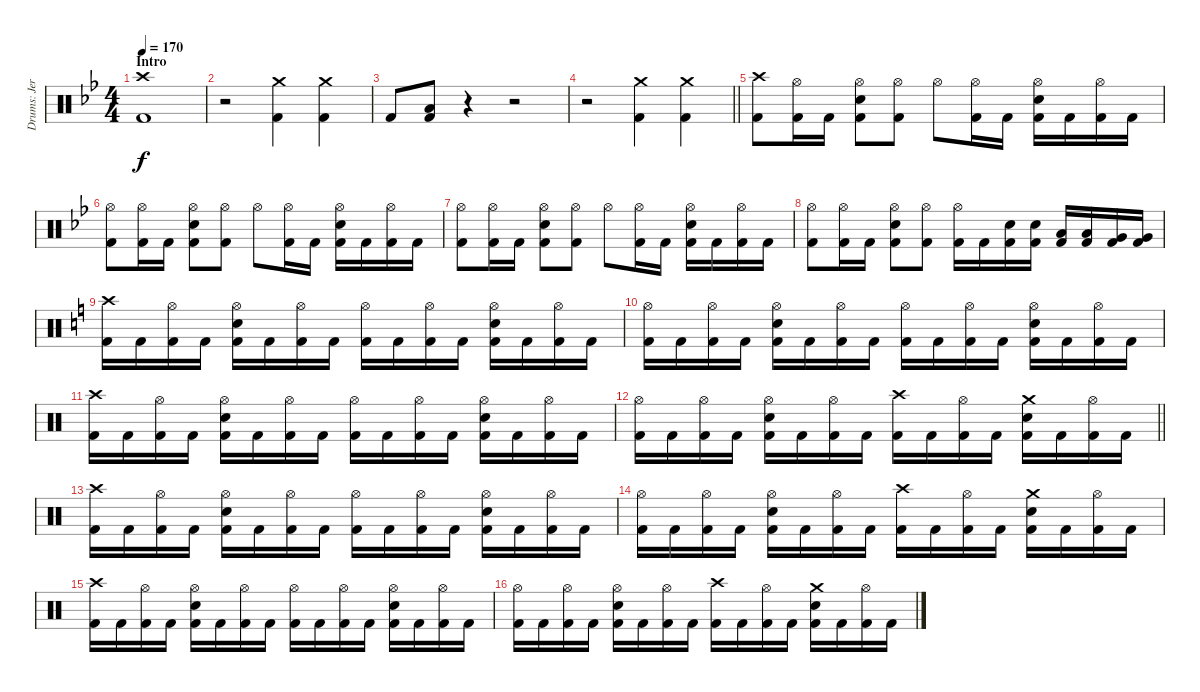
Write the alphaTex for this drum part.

\track ("Drums: Jere Luokkamäki" "Drums: Jer") {instrument percussion}
\staff {score}
\articulation defaults
\ts (4 4)
\section ("" "Intro")
\tempo 170
\clef neutral
\ks gminor
("Crash high (hit)" "Kick (hit) 2").1{dy f} |
r.2 ("Crash medium (hit)" "Kick (hit) 2").4 ("Crash medium (hit)" "Kick (hit) 2").4 |
"Kick (hit) 2".8 ("Low Tom (hit)" "Kick (hit) 2").8 r.4 r.2 |
\barLineRight lightlight
r.2 ("Crash medium (hit)" "Kick (hit) 2").4 ("Crash medium (hit)" "Kick (hit) 2").4 |
("Crash high (hit)" "Kick (hit) 2").8 ("Hi-Hat (open)" "Kick (hit) 2").16 "Kick (hit) 2".16 ("Hi-Hat (open)" "Electric Snare (hit)" "Kick (hit) 2").8 ("Hi-Hat (open)" "Kick (hit) 2").8 "Hi-Hat (open)".8 ("Hi-Hat (open)" "Kick (hit) 2").16 "Kick (hit) 2".16 ("Hi-Hat (open)" "Electric Snare (hit)" "Kick (hit) 2").16 "Kick (hit) 2".16 ("Hi-Hat (open)" "Kick (hit) 2").16 "Kick (hit) 2".16 |
("Hi-Hat (open)" "Kick (hit) 2").8 ("Hi-Hat (open)" "Kick (hit) 2").16 "Kick (hit) 2".16 ("Hi-Hat (open)" "Electric Snare (hit)" "Kick (hit) 2").8 ("Hi-Hat (open)" "Kick (hit) 2").8 "Hi-Hat (open)".8 ("Hi-Hat (open)" "Kick (hit) 2").16 "Kick (hit) 2".16 ("Hi-Hat (open)" "Electric Snare (hit)" "Kick (hit) 2").16 "Kick (hit) 2".16 ("Hi-Hat (open)" "Kick (hit) 2").16 "Kick (hit) 2".16 |
("Hi-Hat (open)" "Kick (hit) 2").8 ("Hi-Hat (open)" "Kick (hit) 2").16 "Kick (hit) 2".16 ("Hi-Hat (open)" "Electric Snare (hit)" "Kick (hit) 2").8 ("Hi-Hat (open)" "Kick (hit) 2").8 "Hi-Hat (open)".8 ("Hi-Hat (open)" "Kick (hit) 2").16 "Kick (hit) 2".16 ("Hi-Hat (open)" "Electric Snare (hit)" "Kick (hit) 2").16 "Kick (hit) 2".16 ("Hi-Hat (open)" "Kick (hit) 2").16 "Kick (hit) 2".16 |
("Hi-Hat (open)" "Kick (hit) 2").8 ("Hi-Hat (open)" "Kick (hit) 2").16 "Kick (hit) 2".16 ("Hi-Hat (open)" "Electric Snare (hit)" "Kick (hit) 2").8 ("Hi-Hat (open)" "Kick (hit) 2").8 ("Hi-Hat (open)" "Kick (hit) 2").16 "Kick (hit) 2".16 ("Electric Snare (hit)" "Kick (hit) 2").16 ("Electric Snare (hit)" "Kick (hit) 2").16 ("Low Tom (hit)" "Kick (hit) 2").16 ("Low Tom (hit)" "Kick (hit) 2").16 ("Very Low Tom (hit)" "Kick (hit) 2").16 ("Very Low Tom (hit)" "Kick (hit) 2").16 |
\ks aminor
("Crash high (hit)" "Kick (hit) 2").16 "Kick (hit) 2".16 ("Hi-Hat (open)" "Kick (hit) 2").16 "Kick (hit) 2".16 ("Hi-Hat (open)" "Electric Snare (hit)" "Kick (hit) 2").16 "Kick (hit) 2".16 ("Hi-Hat (open)" "Kick (hit) 2").16 "Kick (hit) 2".16 ("Hi-Hat (open)" "Kick (hit) 2").16 "Kick (hit) 2".16 ("Hi-Hat (open)" "Kick (hit) 2").16 "Kick (hit) 2".16 ("Hi-Hat (open)" "Electric Snare (hit)" "Kick (hit) 2").16 "Kick (hit) 2".16 ("Hi-Hat (open)" "Kick (hit) 2").16 "Kick (hit) 2".16 |
("Hi-Hat (open)" "Kick (hit) 2").16 "Kick (hit) 2".16 ("Hi-Hat (open)" "Kick (hit) 2").16 "Kick (hit) 2".16 ("Hi-Hat (open)" "Electric Snare (hit)" "Kick (hit) 2").16 "Kick (hit) 2".16 ("Hi-Hat (open)" "Kick (hit) 2").16 "Kick (hit) 2".16 ("Hi-Hat (open)" "Kick (hit) 2").16 "Kick (hit) 2".16 ("Hi-Hat (open)" "Kick (hit) 2").16 "Kick (hit) 2".16 ("Hi-Hat (open)" "Electric Snare (hit)" "Kick (hit) 2").16 "Kick (hit) 2".16 ("Hi-Hat (open)" "Kick (hit) 2").16 "Kick (hit) 2".16 |
("Crash high (hit)" "Kick (hit) 2").16 "Kick (hit) 2".16 ("Hi-Hat (open)" "Kick (hit) 2").16 "Kick (hit) 2".16 ("Hi-Hat (open)" "Electric Snare (hit)" "Kick (hit) 2").16 "Kick (hit) 2".16 ("Hi-Hat (open)" "Kick (hit) 2").16 "Kick (hit) 2".16 ("Hi-Hat (open)" "Kick (hit) 2").16 "Kick (hit) 2".16 ("Hi-Hat (open)" "Kick (hit) 2").16 "Kick (hit) 2".16 ("Hi-Hat (open)" "Electric Snare (hit)" "Kick (hit) 2").16 "Kick (hit) 2".16 ("Hi-Hat (open)" "Kick (hit) 2").16 "Kick (hit) 2".16 |
\barLineRight lightlight
("Hi-Hat (open)" "Kick (hit) 2").16 "Kick (hit) 2".16 ("Hi-Hat (open)" "Kick (hit) 2").16 "Kick (hit) 2".16 ("Hi-Hat (open)" "Electric Snare (hit)" "Kick (hit) 2").16 "Kick (hit) 2".16 ("Hi-Hat (open)" "Kick (hit) 2").16 "Kick (hit) 2".16 ("Crash high (hit)" "Kick (hit) 2").16 "Kick (hit) 2".16 ("Hi-Hat (open)" "Kick (hit) 2").16 "Kick (hit) 2".16 ("Crash medium (hit)" "Electric Snare (hit)" "Kick (hit) 2").16 "Kick (hit) 2".16 ("Hi-Hat (open)" "Kick (hit) 2").16 "Kick (hit) 2".16 |
("Crash high (hit)" "Kick (hit) 2").16 "Kick (hit) 2".16 ("Hi-Hat (open)" "Kick (hit) 2").16 "Kick (hit) 2".16 ("Hi-Hat (open)" "Electric Snare (hit)" "Kick (hit) 2").16 "Kick (hit) 2".16 ("Hi-Hat (open)" "Kick (hit) 2").16 "Kick (hit) 2".16 ("Hi-Hat (open)" "Kick (hit) 2").16 "Kick (hit) 2".16 ("Hi-Hat (open)" "Kick (hit) 2").16 "Kick (hit) 2".16 ("Hi-Hat (open)" "Electric Snare (hit)" "Kick (hit) 2").16 "Kick (hit) 2".16 ("Hi-Hat (open)" "Kick (hit) 2").16 "Kick (hit) 2".16 |
("Hi-Hat (open)" "Kick (hit) 2").16 "Kick (hit) 2".16 ("Hi-Hat (open)" "Kick (hit) 2").16 "Kick (hit) 2".16 ("Hi-Hat (open)" "Electric Snare (hit)" "Kick (hit) 2").16 "Kick (hit) 2".16 ("Hi-Hat (open)" "Kick (hit) 2").16 "Kick (hit) 2".16 ("Crash high (hit)" "Kick (hit) 2").16 "Kick (hit) 2".16 ("Hi-Hat (open)" "Kick (hit) 2").16 "Kick (hit) 2".16 ("Crash medium (hit)" "Electric Snare (hit)" "Kick (hit) 2").16 "Kick (hit) 2".16 ("Hi-Hat (open)" "Kick (hit) 2").16 "Kick (hit) 2".16 |
("Crash high (hit)" "Kick (hit) 2").16 "Kick (hit) 2".16 ("Hi-Hat (open)" "Kick (hit) 2").16 "Kick (hit) 2".16 ("Hi-Hat (open)" "Electric Snare (hit)" "Kick (hit) 2").16 "Kick (hit) 2".16 ("Hi-Hat (open)" "Kick (hit) 2").16 "Kick (hit) 2".16 ("Hi-Hat (open)" "Kick (hit) 2").16 "Kick (hit) 2".16 ("Hi-Hat (open)" "Kick (hit) 2").16 "Kick (hit) 2".16 ("Hi-Hat (open)" "Electric Snare (hit)" "Kick (hit) 2").16 "Kick (hit) 2".16 ("Hi-Hat (open)" "Kick (hit) 2").16 "Kick (hit) 2".16 |
("Hi-Hat (open)" "Kick (hit) 2").16 "Kick (hit) 2".16 ("Hi-Hat (open)" "Kick (hit) 2").16 "Kick (hit) 2".16 ("Hi-Hat (open)" "Electric Snare (hit)" "Kick (hit) 2").16 "Kick (hit) 2".16 ("Hi-Hat (open)" "Kick (hit) 2").16 "Kick (hit) 2".16 ("Crash high (hit)" "Kick (hit) 2").16 "Kick (hit) 2".16 ("Hi-Hat (open)" "Kick (hit) 2").16 "Kick (hit) 2".16 ("Crash medium (hit)" "Electric Snare (hit)" "Kick (hit) 2").16 "Kick (hit) 2".16 ("Hi-Hat (open)" "Kick (hit) 2").16 "Kick (hit) 2".16
